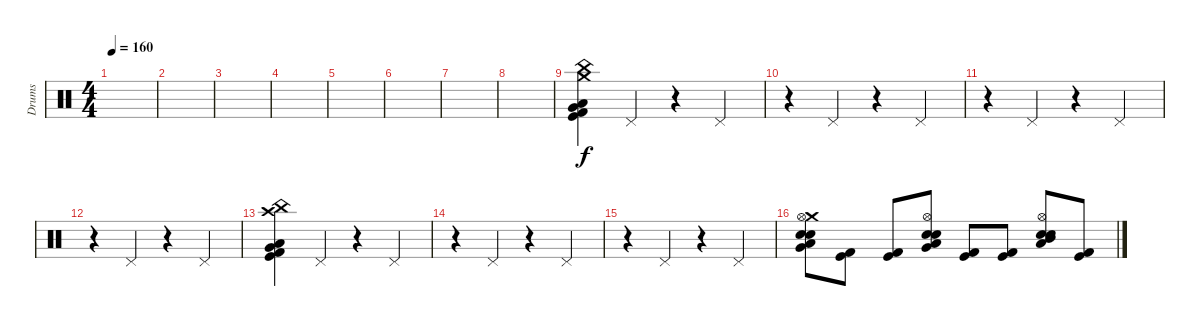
\track ("Drums" "Drums") {instrument percussion}
\staff {score}
\articulation defaults
\ts (4 4)
\tempo 160
\clef neutral
\ks c
|
|
|
|
|
|
|
|
("Crash medium (hit)" "China (hit)" "Low Tom (hit)" "Very Low Tom (hit)" "Kick (hit) 2" "Kick (hit)").4 "Pedal Hi-Hat (hit)".4 r.4 "Pedal Hi-Hat (hit)".4 |
r.4 "Pedal Hi-Hat (hit)".4 r.4 "Pedal Hi-Hat (hit)".4 |
r.4 "Pedal Hi-Hat (hit)".4 r.4 "Pedal Hi-Hat (hit)".4 |
r.4 "Pedal Hi-Hat (hit)".4 r.4 "Pedal Hi-Hat (hit)".4 |
("Crash high (hit)" "China (hit)" "Low Tom (hit)" "Very Low Tom (hit)" "Kick (hit) 2" "Kick (hit)").4 "Pedal Hi-Hat (hit)".4 r.4 "Pedal Hi-Hat (hit)".4 |
r.4 "Pedal Hi-Hat (hit)".4 r.4 "Pedal Hi-Hat (hit)".4 |
r.4 "Pedal Hi-Hat (hit)".4 r.4 "Pedal Hi-Hat (hit)".4 |
("Crash medium (hit)" "Hi-Hat (open)" "Electric Snare (hit)" "Snare (hit) 2" "Very Low Tom (hit)" "Low Floor Tom (hit)").8 ("Kick (hit) 2" "Kick (hit)").8 ("Kick (hit) 2" "Kick (hit)").8 ("Low Tom (hit)" "Hi-Hat (open)" "Electric Snare (hit)" "Snare (hit) 2" "Very Low Tom (hit)").8 ("Kick (hit) 2" "Kick (hit)").8 ("Kick (hit) 2" "Kick (hit)").8 ("Low Tom (hit)" "Hi-Hat (open)" "Electric Snare (hit)" "Snare (hit) 2" "Mid Tom (hit)").8 ("Kick (hit) 2" "Kick (hit)").8
